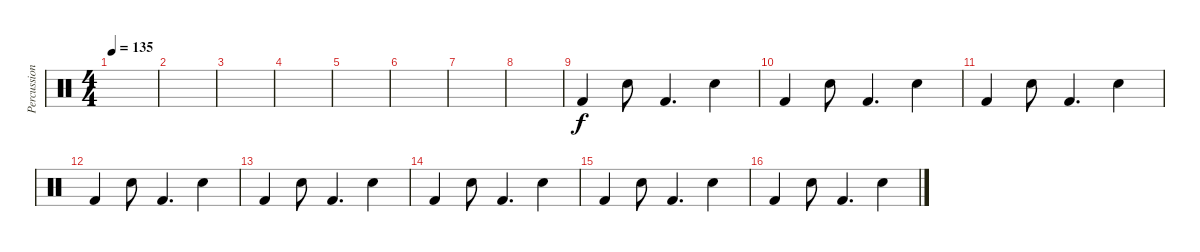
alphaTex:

\track ("Percussion" "Percussion") {instrument percussion}
\staff {score}
\articulation defaults
\ts (4 4)
\tempo 135
\clef neutral
\ks c
|
|
|
|
|
|
|
|
"Kick (hit) 2".4 "Snare (hit) 2".8 "Kick (hit) 2".4{d} "Snare (hit) 2".4 |
"Kick (hit) 2".4 "Snare (hit) 2".8 "Kick (hit) 2".4{d} "Snare (hit) 2".4 |
"Kick (hit) 2".4 "Snare (hit) 2".8 "Kick (hit) 2".4{d} "Snare (hit) 2".4 |
"Kick (hit) 2".4 "Snare (hit) 2".8 "Kick (hit) 2".4{d} "Snare (hit) 2".4 |
"Kick (hit) 2".4 "Snare (hit) 2".8 "Kick (hit) 2".4{d} "Snare (hit) 2".4 |
"Kick (hit) 2".4 "Snare (hit) 2".8 "Kick (hit) 2".4{d} "Snare (hit) 2".4 |
"Kick (hit) 2".4 "Snare (hit) 2".8 "Kick (hit) 2".4{d} "Snare (hit) 2".4 |
"Kick (hit) 2".4 "Snare (hit) 2".8 "Kick (hit) 2".4{d} "Snare (hit) 2".4
